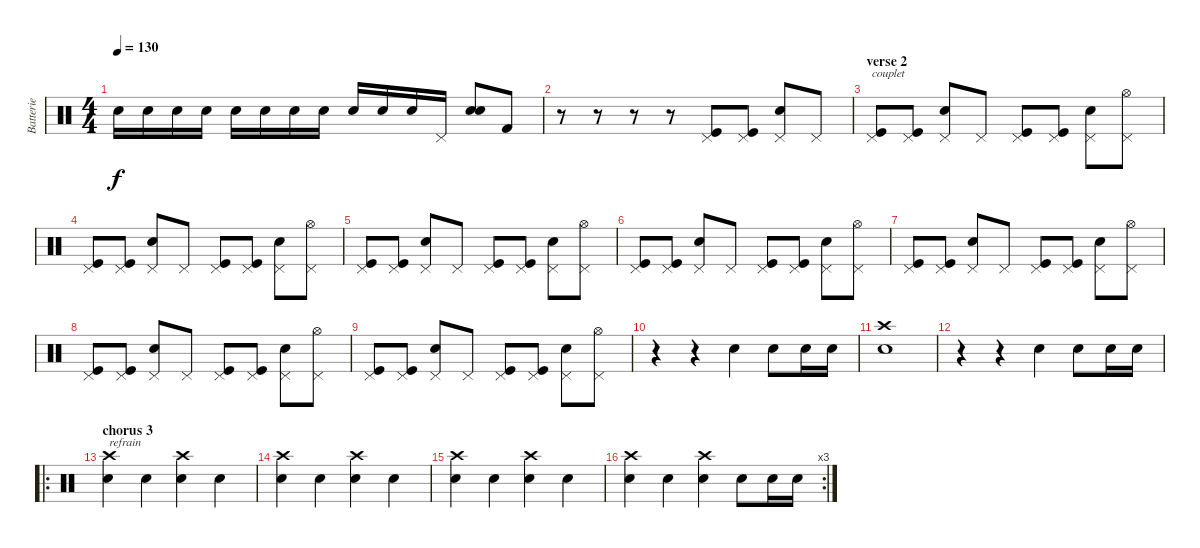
\track ("Batterie" "Batterie") {instrument percussion}
\staff {score}
\articulation defaults
\ts (4 4)
\tempo 130
\clef neutral
\ks c "Snare (hit) 2".16{dy f} "Snare (hit) 2".16 "Snare (hit) 2".16 "Snare (hit) 2".16 "Snare (hit) 2".16 "Snare (hit) 2".16 "Snare (hit) 2".16 "Snare (hit) 2".16 "Snare (hit) 2".16 "Snare (hit) 2".16 "Snare (hit) 2".16 "Pedal Hi-Hat (hit)".16
("Electric Snare (hit)" "Snare (hit) 2").8 "Kick (hit) 2".8 |
r.8 r.8 r.8 r.8 ("Pedal Hi-Hat (hit)" "Kick (hit)").8 ("Pedal Hi-Hat (hit)" "Kick (hit)").8 ("Pedal Hi-Hat (hit)" "Snare (hit) 2").8 "Pedal Hi-Hat (hit)".8 |
\section ("" "verse 2")
("Pedal Hi-Hat (hit)" "Kick (hit)").8{txt "couplet"} ("Pedal Hi-Hat (hit)" "Kick (hit)").8 ("Pedal Hi-Hat (hit)" "Snare (hit) 2").8 "Pedal Hi-Hat (hit)".8 ("Pedal Hi-Hat (hit)" "Kick (hit)").8 ("Pedal Hi-Hat (hit)" "Kick (hit)").8 ("Pedal Hi-Hat (hit)" "Snare (hit) 2").8 ("Pedal Hi-Hat (hit)" "Hi-Hat (open)").8 |
("Pedal Hi-Hat (hit)" "Kick (hit)").8 ("Pedal Hi-Hat (hit)" "Kick (hit)").8 ("Pedal Hi-Hat (hit)" "Snare (hit) 2").8 "Pedal Hi-Hat (hit)".8 ("Pedal Hi-Hat (hit)" "Kick (hit)").8 ("Pedal Hi-Hat (hit)" "Kick (hit)").8 ("Pedal Hi-Hat (hit)" "Snare (hit) 2").8 ("Pedal Hi-Hat (hit)" "Hi-Hat (open)").8 |
("Pedal Hi-Hat (hit)" "Kick (hit)").8 ("Pedal Hi-Hat (hit)" "Kick (hit)").8 ("Pedal Hi-Hat (hit)" "Snare (hit) 2").8 "Pedal Hi-Hat (hit)".8 ("Pedal Hi-Hat (hit)" "Kick (hit)").8 ("Pedal Hi-Hat (hit)" "Kick (hit)").8 ("Pedal Hi-Hat (hit)" "Snare (hit) 2").8 ("Pedal Hi-Hat (hit)" "Hi-Hat (open)").8 |
("Pedal Hi-Hat (hit)" "Kick (hit)").8 ("Pedal Hi-Hat (hit)" "Kick (hit)").8 ("Pedal Hi-Hat (hit)" "Snare (hit) 2").8 "Pedal Hi-Hat (hit)".8 ("Pedal Hi-Hat (hit)" "Kick (hit)").8 ("Pedal Hi-Hat (hit)" "Kick (hit)").8 ("Pedal Hi-Hat (hit)" "Snare (hit) 2").8 ("Pedal Hi-Hat (hit)" "Hi-Hat (open)").8 |
("Pedal Hi-Hat (hit)" "Kick (hit)").8 ("Pedal Hi-Hat (hit)" "Kick (hit)").8 ("Pedal Hi-Hat (hit)" "Snare (hit) 2").8 "Pedal Hi-Hat (hit)".8 ("Pedal Hi-Hat (hit)" "Kick (hit)").8 ("Pedal Hi-Hat (hit)" "Kick (hit)").8 ("Pedal Hi-Hat (hit)" "Snare (hit) 2").8 ("Pedal Hi-Hat (hit)" "Hi-Hat (open)").8 |
("Pedal Hi-Hat (hit)" "Kick (hit)").8 ("Pedal Hi-Hat (hit)" "Kick (hit)").8 ("Pedal Hi-Hat (hit)" "Snare (hit) 2").8 "Pedal Hi-Hat (hit)".8 ("Pedal Hi-Hat (hit)" "Kick (hit)").8 ("Pedal Hi-Hat (hit)" "Kick (hit)").8 ("Pedal Hi-Hat (hit)" "Snare (hit) 2").8 ("Pedal Hi-Hat (hit)" "Hi-Hat (open)").8 |
("Pedal Hi-Hat (hit)" "Kick (hit)").8 ("Pedal Hi-Hat (hit)" "Kick (hit)").8 ("Pedal Hi-Hat (hit)" "Snare (hit) 2").8 "Pedal Hi-Hat (hit)".8 ("Pedal Hi-Hat (hit)" "Kick (hit)").8 ("Pedal Hi-Hat (hit)" "Kick (hit)").8 ("Pedal Hi-Hat (hit)" "Snare (hit) 2").8 ("Pedal Hi-Hat (hit)" "Hi-Hat (open)").8 |
r.4 r.4 "Snare (hit) 2".4 "Snare (hit) 2".8 "Snare (hit) 2".16 "Snare (hit) 2".16 |
("Crash high (hit)" "Electric Snare (hit)").1 |
r.4 r.4 "Snare (hit) 2".4 "Snare (hit) 2".8 "Snare (hit) 2".16 "Snare (hit) 2".16 |
\ro
\section ("" "chorus 3")
("Crash high (hit)" "Electric Snare (hit)").4{txt "refrain"} "Electric Snare (hit)".4 ("Crash high (hit)" "Electric Snare (hit)").4 "Electric Snare (hit)".4 |
("Crash high (hit)" "Electric Snare (hit)").4 "Electric Snare (hit)".4 ("Crash high (hit)" "Electric Snare (hit)").4 "Electric Snare (hit)".4 |
("Crash high (hit)" "Electric Snare (hit)").4 "Electric Snare (hit)".4 ("Crash high (hit)" "Electric Snare (hit)").4 "Electric Snare (hit)".4 |
\rc 3
("Crash high (hit)" "Electric Snare (hit)").4 "Electric Snare (hit)".4 ("Crash high (hit)" "Electric Snare (hit)").4 "Electric Snare (hit)".8 "Electric Snare (hit)".16 "Electric Snare (hit)".16
